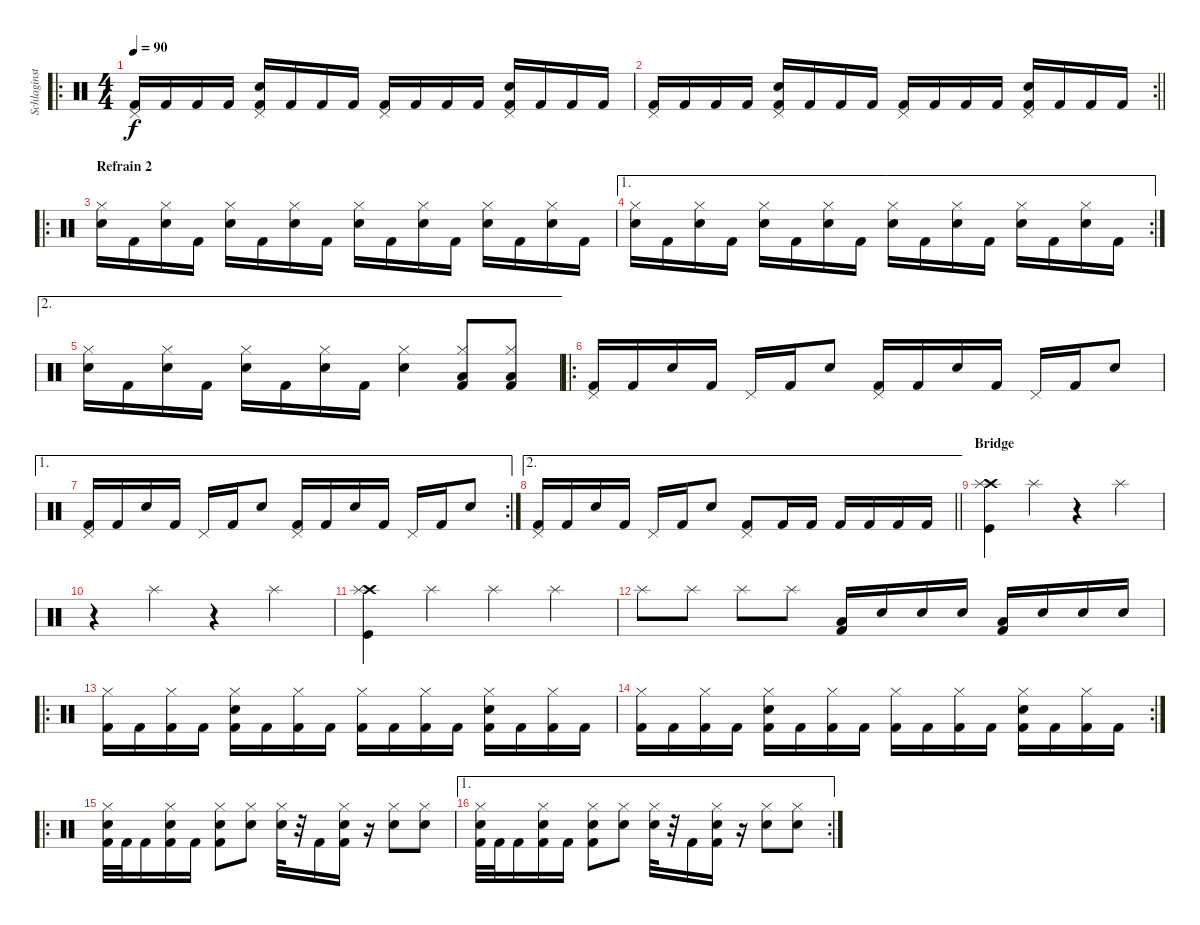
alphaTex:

\track ("Schlaginstrumente - Auswahl" "Schlaginst") {instrument percussion}
\staff {score}
\articulation defaults
\ro
\ts (4 4)
\tempo 90
\clef neutral
\ks c
("Pedal Hi-Hat (hit)" "Kick (hit) 2").16{dy f} "Kick (hit) 2".16 "Kick (hit) 2".16 "Kick (hit) 2".16 ("Pedal Hi-Hat (hit)" "Snare (hit) 2" "Kick (hit) 2").16 "Kick (hit) 2".16 "Kick (hit) 2".16 "Kick (hit) 2".16 ("Pedal Hi-Hat (hit)" "Kick (hit) 2").16 "Kick (hit) 2".16 "Kick (hit) 2".16 "Kick (hit) 2".16 ("Pedal Hi-Hat (hit)" "Snare (hit) 2" "Kick (hit) 2").16 "Kick (hit) 2".16 "Kick (hit) 2".16 "Kick (hit) 2".16 |
\rc 2
\barLineRight lightlight
("Pedal Hi-Hat (hit)" "Kick (hit) 2").16 "Kick (hit) 2".16 "Kick (hit) 2".16 "Kick (hit) 2".16 ("Pedal Hi-Hat (hit)" "Snare (hit) 2" "Kick (hit) 2").16 "Kick (hit) 2".16 "Kick (hit) 2".16 "Kick (hit) 2".16 ("Pedal Hi-Hat (hit)" "Kick (hit) 2").16 "Kick (hit) 2".16 "Kick (hit) 2".16 "Kick (hit) 2".16 ("Pedal Hi-Hat (hit)" "Snare (hit) 2" "Kick (hit) 2").16 "Kick (hit) 2".16 "Kick (hit) 2".16 "Kick (hit) 2".16 |
\ro
\section ("" "Refrain 2")
("Hi-Hat (closed)" "Snare (hit) 2").16 "Kick (hit) 2".16 ("Hi-Hat (closed)" "Snare (hit) 2").16 "Kick (hit) 2".16 ("Hi-Hat (closed)" "Snare (hit) 2").16 "Kick (hit) 2".16 ("Hi-Hat (closed)" "Snare (hit) 2").16 "Kick (hit) 2".16 ("Hi-Hat (closed)" "Snare (hit) 2").16 "Kick (hit) 2".16 ("Hi-Hat (closed)" "Snare (hit) 2").16 "Kick (hit) 2".16 ("Hi-Hat (closed)" "Snare (hit) 2").16 "Kick (hit) 2".16 ("Hi-Hat (closed)" "Snare (hit) 2").16 "Kick (hit) 2".16 |
\ae 1
\rc 2
("Hi-Hat (closed)" "Snare (hit) 2").16 "Kick (hit) 2".16 ("Hi-Hat (closed)" "Snare (hit) 2").16 "Kick (hit) 2".16 ("Hi-Hat (closed)" "Snare (hit) 2").16 "Kick (hit) 2".16 ("Hi-Hat (closed)" "Snare (hit) 2").16 "Kick (hit) 2".16 ("Hi-Hat (closed)" "Snare (hit) 2").16 "Kick (hit) 2".16 ("Hi-Hat (closed)" "Snare (hit) 2").16 "Kick (hit) 2".16 ("Hi-Hat (closed)" "Snare (hit) 2").16 "Kick (hit) 2".16 ("Hi-Hat (closed)" "Snare (hit) 2").16 "Kick (hit) 2".16 |
\ae 2
("Hi-Hat (closed)" "Snare (hit) 2").16 "Kick (hit) 2".16 ("Hi-Hat (closed)" "Snare (hit) 2").16 "Kick (hit) 2".16 ("Hi-Hat (closed)" "Snare (hit) 2").16 "Kick (hit) 2".16 ("Hi-Hat (closed)" "Snare (hit) 2").16 "Kick (hit) 2".16 ("Hi-Hat (closed)" "Snare (hit) 2").4 ("Hi-Hat (closed)" "Low Floor Tom (hit)" "Kick (hit) 2").8 ("Hi-Hat (closed)" "Low Floor Tom (hit)" "Kick (hit) 2").8 |
\ro
("Pedal Hi-Hat (hit)" "Kick (hit) 2").16 "Kick (hit) 2".16 "Snare (hit) 2".16 "Kick (hit) 2".16 "Pedal Hi-Hat (hit)".16 "Kick (hit) 2".16 "Snare (hit) 2".8 ("Pedal Hi-Hat (hit)" "Kick (hit) 2").16 "Kick (hit) 2".16 "Snare (hit) 2".16 "Kick (hit) 2".16 "Pedal Hi-Hat (hit)".16 "Kick (hit) 2".16 "Snare (hit) 2".8 |
\ae 1
\rc 2
("Pedal Hi-Hat (hit)" "Kick (hit) 2").16 "Kick (hit) 2".16 "Snare (hit) 2".16 "Kick (hit) 2".16 "Pedal Hi-Hat (hit)".16 "Kick (hit) 2".16 "Snare (hit) 2".8 ("Pedal Hi-Hat (hit)" "Kick (hit) 2").16 "Kick (hit) 2".16 "Snare (hit) 2".16 "Kick (hit) 2".16 "Pedal Hi-Hat (hit)".16 "Kick (hit) 2".16 "Snare (hit) 2".8 |
\ae 2
\barLineRight lightlight
("Pedal Hi-Hat (hit)" "Kick (hit) 2").16 "Kick (hit) 2".16 "Snare (hit) 2".16 "Kick (hit) 2".16 "Pedal Hi-Hat (hit)".16 "Kick (hit) 2".16 "Snare (hit) 2".8 ("Pedal Hi-Hat (hit)" "Kick (hit) 2").8 "Kick (hit) 2".16 "Kick (hit) 2".16 "Kick (hit) 2".16 "Kick (hit) 2".16 "Kick (hit) 2".16 "Kick (hit) 2".16 |
\section ("" "Bridge")
("Crash high (hit)" "Splash (hit)" "Kick (hit)").4 "Splash (hit)".4 r.4 "Splash (hit)".4 |
r.4 "Splash (hit)".4 r.4 "Splash (hit)".4 |
("Crash high (hit)" "Splash (hit)" "Kick (hit)").4 "Splash (hit)".4 "Splash (hit)".4 "Splash (hit)".4 |
"Splash (hit)".8 "Splash (hit)".8 "Splash (hit)".8 "Splash (hit)".8 ("Low Floor Tom (hit)" "Kick (hit) 2").16 "Snare (hit) 2".16 "Snare (hit) 2".16 "Snare (hit) 2".16 ("Low Floor Tom (hit)" "Kick (hit) 2").16 "Snare (hit) 2".16 "Snare (hit) 2".16 "Snare (hit) 2".16 |
\ro
("Hi-Hat (closed)" "Kick (hit) 2").16 "Kick (hit) 2".16 ("Hi-Hat (closed)" "Kick (hit) 2").16 "Kick (hit) 2".16 ("Hi-Hat (closed)" "Snare (hit) 2" "Kick (hit) 2").16 "Kick (hit) 2".16 ("Hi-Hat (closed)" "Kick (hit) 2").16 "Kick (hit) 2".16 ("Hi-Hat (closed)" "Kick (hit) 2").16 "Kick (hit) 2".16 ("Hi-Hat (closed)" "Kick (hit) 2").16 "Kick (hit) 2".16 ("Hi-Hat (closed)" "Snare (hit) 2" "Kick (hit) 2").16 "Kick (hit) 2".16 ("Hi-Hat (closed)" "Kick (hit) 2").16 "Kick (hit) 2".16 |
\rc 2
("Hi-Hat (closed)" "Kick (hit) 2").16 "Kick (hit) 2".16 ("Hi-Hat (closed)" "Kick (hit) 2").16 "Kick (hit) 2".16 ("Hi-Hat (closed)" "Snare (hit) 2" "Kick (hit) 2").16 "Kick (hit) 2".16 ("Hi-Hat (closed)" "Kick (hit) 2").16 "Kick (hit) 2".16 ("Hi-Hat (closed)" "Kick (hit) 2").16 "Kick (hit) 2".16 ("Hi-Hat (closed)" "Kick (hit) 2").16 "Kick (hit) 2".16 ("Hi-Hat (closed)" "Snare (hit) 2" "Kick (hit) 2").16 "Kick (hit) 2".16 ("Hi-Hat (closed)" "Kick (hit) 2").16 "Kick (hit) 2".16 |
\ro
("Hi-Hat (closed)" "Snare (hit) 2" "Kick (hit) 2").32 "Kick (hit) 2".32 "Kick (hit) 2".16 ("Hi-Hat (closed)" "Snare (hit) 2" "Kick (hit) 2").16 "Kick (hit) 2".16 ("Hi-Hat (closed)" "Snare (hit) 2" "Kick (hit) 2").8 ("Hi-Hat (closed)" "Snare (hit) 2").8 ("Hi-Hat (closed)" "Snare (hit) 2").32 r.32 "Kick (hit) 2".16 ("Hi-Hat (closed)" "Snare (hit) 2" "Kick (hit) 2").16 r.16 ("Hi-Hat (closed)" "Snare (hit) 2").8 ("Hi-Hat (closed)" "Snare (hit) 2").8 |
\ae 1
\rc 2
("Hi-Hat (closed)" "Snare (hit) 2" "Kick (hit) 2").32 "Kick (hit) 2".32 "Kick (hit) 2".16 ("Hi-Hat (closed)" "Snare (hit) 2" "Kick (hit) 2").16 "Kick (hit) 2".16 ("Hi-Hat (closed)" "Snare (hit) 2" "Kick (hit) 2").8 ("Hi-Hat (closed)" "Snare (hit) 2").8 ("Hi-Hat (closed)" "Snare (hit) 2").32 r.32 "Kick (hit) 2".16 ("Hi-Hat (closed)" "Snare (hit) 2" "Kick (hit) 2").16 r.16 ("Hi-Hat (closed)" "Snare (hit) 2").8 ("Hi-Hat (closed)" "Snare (hit) 2").8
